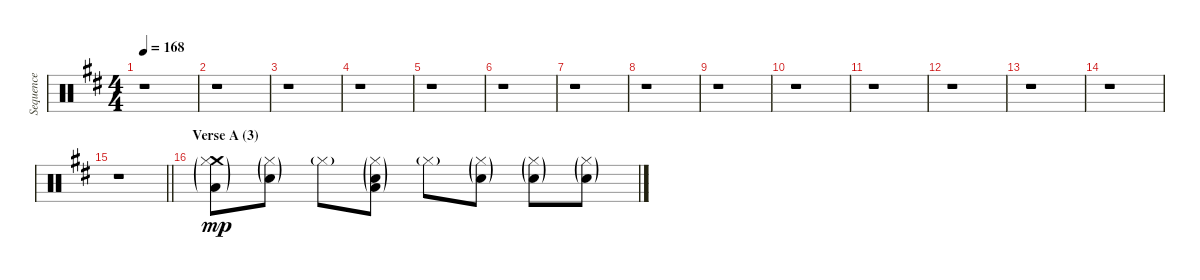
\track ("Sequence" "Sequence") {instrument percussion}
\staff {score}
\articulation defaults
\ts (4 4)
\tempo 168
\clef neutral
\ks d
r.1{dy mp} |
r.1 |
r.1 |
r.1 |
r.1 |
r.1 |
r.1 |
r.1 |
r.1 |
r.1 |
r.1 |
r.1 |
r.1 |
r.1 |
\barLineRight lightlight
r.1 |
\section ("" "Verse A (3)")
("Crash medium (hit)"{g} "Hi-Hat (closed)"{g} "Low Floor Tom (hit)"{g}).8 ("Hi-Hat (closed)"{g} "Electric Snare (hit)"{g}).8 "Hi-Hat (closed)"{g}.8 ("Hi-Hat (closed)"{g} "Electric Snare (hit)"{g} "Low Floor Tom (hit)"{g}).8 "Hi-Hat (closed)"{g}.8 ("Hi-Hat (closed)"{g} "Electric Snare (hit)"{g}).8 ("Hi-Hat (closed)"{g} "Electric Snare (hit)"{g}).8 ("Hi-Hat (closed)"{g} "Electric Snare (hit)"{g}).8
